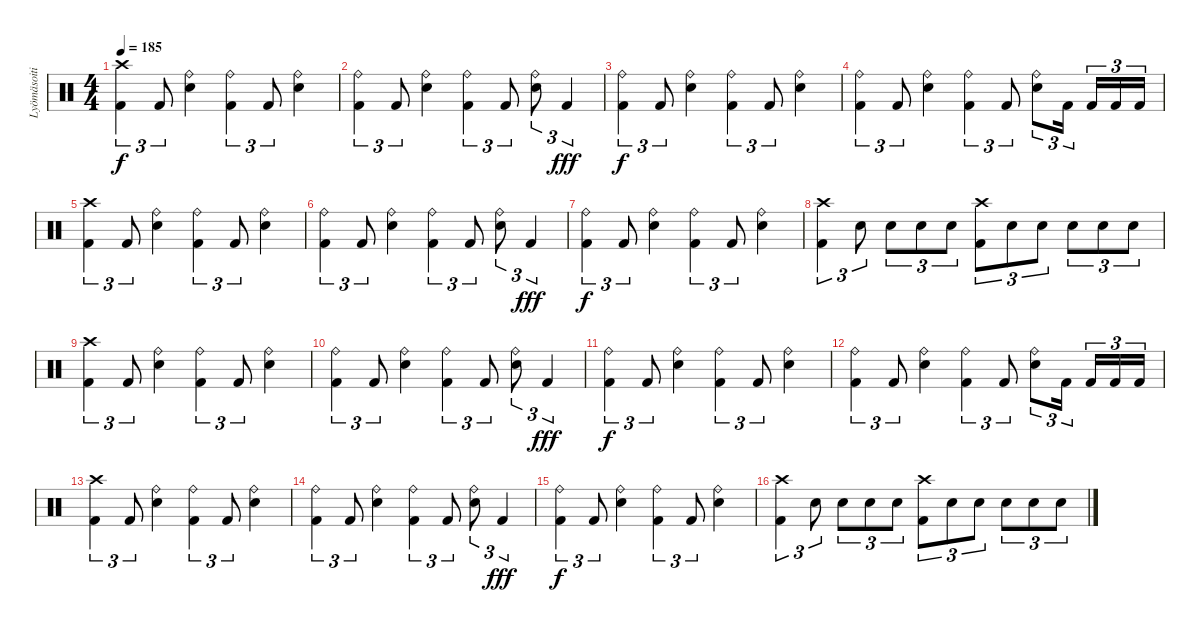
\track ("Lyömäsoitin" "Lyömäsoiti") {instrument percussion}
\staff {score}
\articulation defaults
\ts (4 4)
\tempo 185
\clef neutral
\ks c
("Crash high (hit)" "Kick (hit) 2").4{tu (3 2) dy f} "Kick (hit) 2".8{tu (3 2)} ("Ride (bell)" "Snare (hit) 2").4 ("Ride (bell)" "Kick (hit) 2").4{tu (3 2)} "Kick (hit) 2".8{tu (3 2)} ("Ride (bell)" "Snare (hit) 2").4 |
("Ride (bell)" "Kick (hit) 2").4{tu (3 2)} "Kick (hit) 2".8{tu (3 2)} ("Ride (bell)" "Snare (hit) 2").4 ("Ride (bell)" "Kick (hit) 2").4{tu (3 2)} "Kick (hit) 2".8{tu (3 2)} ("Ride (bell)" "Snare (hit) 2").8{tu (3 2)} "Kick (hit) 2".4{tu (3 2) dy fff} |
("Ride (bell)" "Kick (hit) 2").4{tu (3 2) dy f} "Kick (hit) 2".8{tu (3 2)} ("Ride (bell)" "Snare (hit) 2").4 ("Ride (bell)" "Kick (hit) 2").4{tu (3 2)} "Kick (hit) 2".8{tu (3 2)} ("Ride (bell)" "Snare (hit) 2").4 |
("Ride (bell)" "Kick (hit) 2").4{tu (3 2)} "Kick (hit) 2".8{tu (3 2)} ("Ride (bell)" "Snare (hit) 2").4 ("Ride (bell)" "Kick (hit) 2").4{tu (3 2)} "Kick (hit) 2".8{tu (3 2)} ("Ride (bell)" "Snare (hit) 2").8{tu (3 2)} "Kick (hit) 2".16{tu (3 2) beam splitsecondary} "Kick (hit) 2".16{tu (3 2)} "Kick (hit) 2".16{tu (3 2)} "Kick (hit) 2".16{tu (3 2)} |
("Crash high (hit)" "Kick (hit) 2").4{tu (3 2)} "Kick (hit) 2".8{tu (3 2)} ("Ride (bell)" "Snare (hit) 2").4 ("Ride (bell)" "Kick (hit) 2").4{tu (3 2)} "Kick (hit) 2".8{tu (3 2)} ("Ride (bell)" "Snare (hit) 2").4 |
("Ride (bell)" "Kick (hit) 2").4{tu (3 2)} "Kick (hit) 2".8{tu (3 2)} ("Ride (bell)" "Snare (hit) 2").4 ("Ride (bell)" "Kick (hit) 2").4{tu (3 2)} "Kick (hit) 2".8{tu (3 2)} ("Ride (bell)" "Snare (hit) 2").8{tu (3 2)} "Kick (hit) 2".4{tu (3 2) dy fff} |
("Ride (bell)" "Kick (hit) 2").4{tu (3 2) dy f} "Kick (hit) 2".8{tu (3 2)} ("Ride (bell)" "Snare (hit) 2").4 ("Ride (bell)" "Kick (hit) 2").4{tu (3 2)} "Kick (hit) 2".8{tu (3 2)} ("Ride (bell)" "Snare (hit) 2").4 |
("Crash high (hit)" "Kick (hit) 2").4{tu (3 2)} "Snare (hit) 2".8{tu (3 2)} "Snare (hit) 2".8{tu (3 2)} "Snare (hit) 2".8{tu (3 2)} "Snare (hit) 2".8{tu (3 2)} ("Crash high (hit)" "Kick (hit) 2").8{tu (3 2)} "Snare (hit) 2".8{tu (3 2)} "Snare (hit) 2".8{tu (3 2)} "Snare (hit) 2".8{tu (3 2)} "Snare (hit) 2".8{tu (3 2)} "Snare (hit) 2".8{tu (3 2)} |
("Crash high (hit)" "Kick (hit) 2").4{tu (3 2)} "Kick (hit) 2".8{tu (3 2)} ("Ride (bell)" "Snare (hit) 2").4 ("Ride (bell)" "Kick (hit) 2").4{tu (3 2)} "Kick (hit) 2".8{tu (3 2)} ("Ride (bell)" "Snare (hit) 2").4 |
("Ride (bell)" "Kick (hit) 2").4{tu (3 2)} "Kick (hit) 2".8{tu (3 2)} ("Ride (bell)" "Snare (hit) 2").4 ("Ride (bell)" "Kick (hit) 2").4{tu (3 2)} "Kick (hit) 2".8{tu (3 2)} ("Ride (bell)" "Snare (hit) 2").8{tu (3 2)} "Kick (hit) 2".4{tu (3 2) dy fff} |
("Ride (bell)" "Kick (hit) 2").4{tu (3 2) dy f} "Kick (hit) 2".8{tu (3 2)} ("Ride (bell)" "Snare (hit) 2").4 ("Ride (bell)" "Kick (hit) 2").4{tu (3 2)} "Kick (hit) 2".8{tu (3 2)} ("Ride (bell)" "Snare (hit) 2").4 |
("Ride (bell)" "Kick (hit) 2").4{tu (3 2)} "Kick (hit) 2".8{tu (3 2)} ("Ride (bell)" "Snare (hit) 2").4 ("Ride (bell)" "Kick (hit) 2").4{tu (3 2)} "Kick (hit) 2".8{tu (3 2)} ("Ride (bell)" "Snare (hit) 2").8{tu (3 2)} "Kick (hit) 2".16{tu (3 2) beam splitsecondary} "Kick (hit) 2".16{tu (3 2)} "Kick (hit) 2".16{tu (3 2)} "Kick (hit) 2".16{tu (3 2)} |
("Crash high (hit)" "Kick (hit) 2").4{tu (3 2)} "Kick (hit) 2".8{tu (3 2)} ("Ride (bell)" "Snare (hit) 2").4 ("Ride (bell)" "Kick (hit) 2").4{tu (3 2)} "Kick (hit) 2".8{tu (3 2)} ("Ride (bell)" "Snare (hit) 2").4 |
("Ride (bell)" "Kick (hit) 2").4{tu (3 2)} "Kick (hit) 2".8{tu (3 2)} ("Ride (bell)" "Snare (hit) 2").4 ("Ride (bell)" "Kick (hit) 2").4{tu (3 2)} "Kick (hit) 2".8{tu (3 2)} ("Ride (bell)" "Snare (hit) 2").8{tu (3 2)} "Kick (hit) 2".4{tu (3 2) dy fff} |
("Ride (bell)" "Kick (hit) 2").4{tu (3 2) dy f} "Kick (hit) 2".8{tu (3 2)} ("Ride (bell)" "Snare (hit) 2").4 ("Ride (bell)" "Kick (hit) 2").4{tu (3 2)} "Kick (hit) 2".8{tu (3 2)} ("Ride (bell)" "Snare (hit) 2").4 |
("Crash high (hit)" "Kick (hit) 2").4{tu (3 2)} "Snare (hit) 2".8{tu (3 2)} "Snare (hit) 2".8{tu (3 2)} "Snare (hit) 2".8{tu (3 2)} "Snare (hit) 2".8{tu (3 2)} ("Crash high (hit)" "Kick (hit) 2").8{tu (3 2)} "Snare (hit) 2".8{tu (3 2)} "Snare (hit) 2".8{tu (3 2)} "Snare (hit) 2".8{tu (3 2)} "Snare (hit) 2".8{tu (3 2)} "Snare (hit) 2".8{tu (3 2)}
